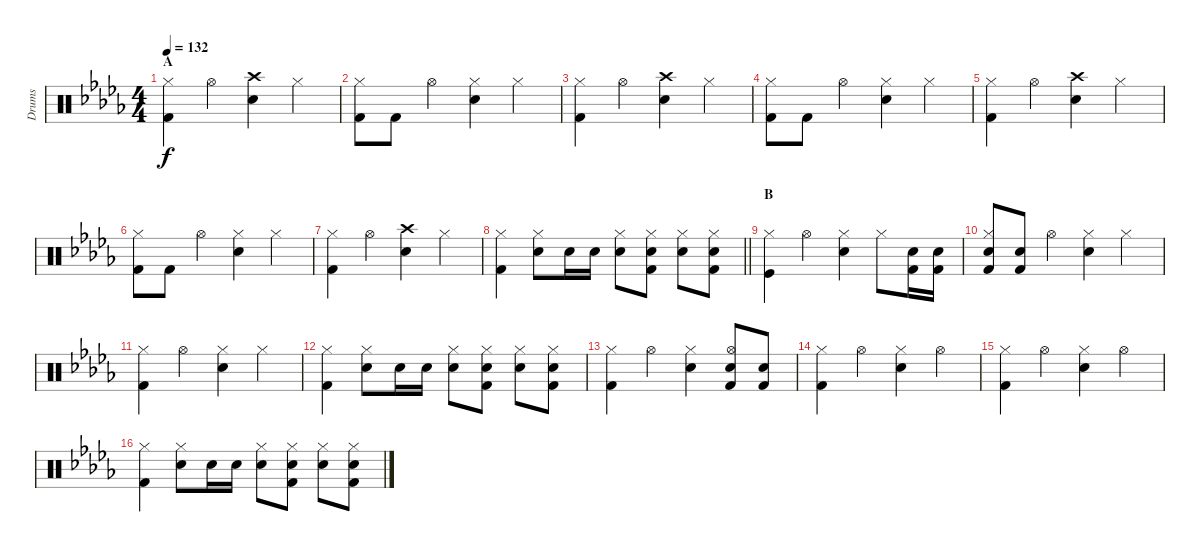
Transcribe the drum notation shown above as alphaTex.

\track ("Drums" "Drums") {instrument percussion}
\staff {score}
\articulation defaults
\ts (4 4)
\section ("" "A")
\tempo 132
\clef neutral
\ks db
("Kick (hit) 2" "Hi-Hat (closed)").4{dy f} "Hi-Hat (open)".4 ("Crash high (hit)" "Snare (hit) 2").4 "Hi-Hat (closed)".4 |
("Kick (hit) 2" "Hi-Hat (closed)").8 "Kick (hit) 2".8 "Hi-Hat (open)".4 ("Hand Clap (hit)" "Hi-Hat (closed)").4 "Hi-Hat (closed)".4 |
("Kick (hit) 2" "Hi-Hat (closed)").4 "Hi-Hat (open)".4 ("Crash high (hit)" "Snare (hit) 2").4 "Hi-Hat (closed)".4 |
("Kick (hit) 2" "Hi-Hat (closed)").8 "Kick (hit) 2".8 "Hi-Hat (open)".4 ("Hand Clap (hit)" "Hi-Hat (closed)").4 "Hi-Hat (closed)".4 |
("Kick (hit) 2" "Hi-Hat (closed)").4 "Hi-Hat (open)".4 ("Crash high (hit)" "Snare (hit) 2").4 "Hi-Hat (closed)".4 |
("Kick (hit) 2" "Hi-Hat (closed)").8 "Kick (hit) 2".8 "Hi-Hat (open)".4 ("Hand Clap (hit)" "Hi-Hat (closed)").4 "Hi-Hat (closed)".4 |
("Kick (hit) 2" "Hi-Hat (closed)").4 "Hi-Hat (open)".4 ("Crash high (hit)" "Snare (hit) 2").4 "Hi-Hat (closed)".4 |
\barLineRight lightlight
("Kick (hit) 2" "Hi-Hat (closed)").4 ("Snare (hit) 2" "Hi-Hat (closed)").8 "Snare (hit) 2".16 "Snare (hit) 2".16 ("Snare (hit) 2" "Hi-Hat (closed)").8 ("Snare (hit) 2" "Hi-Hat (closed)" "Kick (hit) 2").8 ("Snare (hit) 2" "Hi-Hat (closed)").8 ("Snare (hit) 2" "Hi-Hat (closed)" "Kick (hit) 2").8 |
\section ("" "B")
("Kick (hit)" "Hi-Hat (closed)").4 "Hi-Hat (open)".4 ("Snare (hit) 2" "Hi-Hat (closed)").4 "Hi-Hat (closed)".8 ("Kick (hit) 2" "Snare (hit) 2").16 ("Kick (hit) 2" "Snare (hit) 2").16 |
("Kick (hit) 2" "Hi-Hat (closed)" "Snare (hit) 2").8 ("Kick (hit) 2" "Snare (hit) 2").8 "Hi-Hat (open)".4 ("Snare (hit) 2" "Hi-Hat (closed)").4 "Hi-Hat (closed)".4 |
("Kick (hit) 2" "Hi-Hat (closed)").4 "Hi-Hat (open)".4 ("Snare (hit) 2" "Hi-Hat (closed)").4 "Hi-Hat (closed)".4 |
("Kick (hit) 2" "Hi-Hat (closed)").4 ("Snare (hit) 2" "Hi-Hat (closed)").8 "Snare (hit) 2".16 "Snare (hit) 2".16 ("Snare (hit) 2" "Hi-Hat (closed)").8 ("Snare (hit) 2" "Hi-Hat (closed)" "Kick (hit) 2").8 ("Snare (hit) 2" "Hi-Hat (closed)").8 ("Snare (hit) 2" "Hi-Hat (closed)" "Kick (hit) 2").8 |
("Kick (hit) 2" "Hi-Hat (closed)").4 "Hi-Hat (open)".4 ("Snare (hit) 2" "Hi-Hat (closed)").4 ("Hi-Hat (open)" "Kick (hit) 2" "Snare (hit) 2").8 ("Kick (hit) 2" "Snare (hit) 2").8 |
("Kick (hit) 2" "Hi-Hat (closed)").4 "Hi-Hat (open)".4 ("Snare (hit) 2" "Hi-Hat (closed)").4 "Hi-Hat (open)".4 |
("Kick (hit) 2" "Hi-Hat (closed)").4 "Hi-Hat (open)".4 ("Snare (hit) 2" "Hi-Hat (closed)").4 "Hi-Hat (open)".4 |
("Kick (hit) 2" "Hi-Hat (closed)").4 ("Snare (hit) 2" "Hi-Hat (closed)").8 "Snare (hit) 2".16 "Snare (hit) 2".16 ("Snare (hit) 2" "Hi-Hat (closed)").8 ("Snare (hit) 2" "Hi-Hat (closed)" "Kick (hit) 2").8 ("Snare (hit) 2" "Hi-Hat (closed)").8 ("Snare (hit) 2" "Hi-Hat (closed)" "Kick (hit) 2").8
